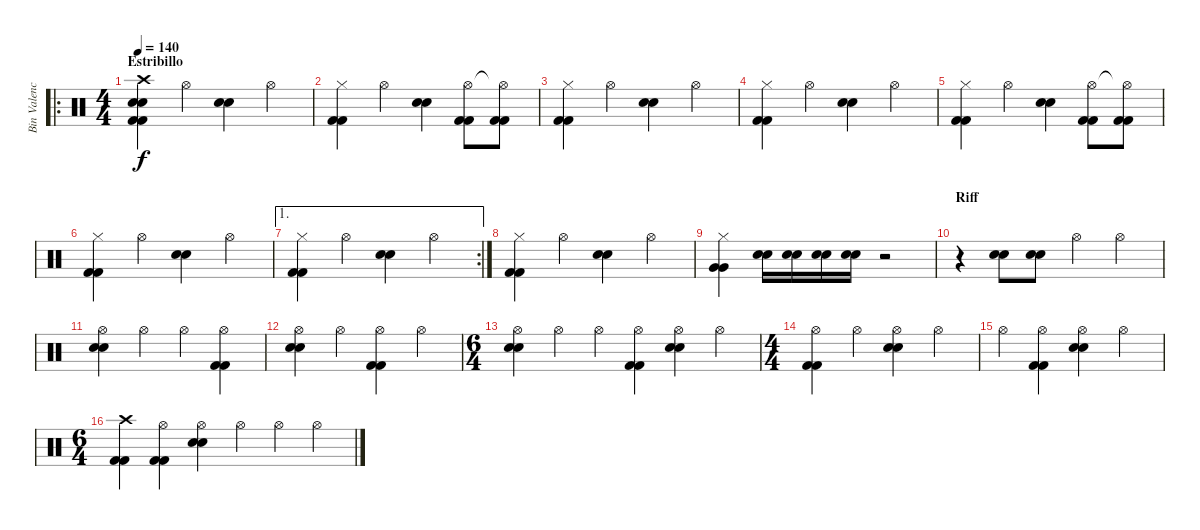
\track ("Bin Valencia (Bateria)" "Bin Valenc") {instrument percussion}
\staff {score}
\articulation defaults
\ro
\ts (4 4)
\section ("" "Estribillo")
\tempo 140
\clef neutral
\ks c
("Crash high (hit)" "Snare (hit) 2" "Snare (hit) 2" "Kick (hit) 2" "Kick (hit) 2").4{dy f} "Hi-Hat (open)".4 ("Snare (hit) 2" "Snare (hit) 2").4 "Hi-Hat (open)".4 |
("Hi-Hat (closed)" "Kick (hit) 2" "Kick (hit) 2").4 "Hi-Hat (open)".4 ("Snare (hit) 2" "Snare (hit) 2").4 ("Hi-Hat (open)" "Kick (hit) 2" "Kick (hit) 2").8 ("Hi-Hat (open)"{t} "Kick (hit) 2" "Kick (hit) 2").8 |
("Hi-Hat (closed)" "Kick (hit) 2" "Kick (hit) 2").4 "Hi-Hat (open)".4 ("Snare (hit) 2" "Snare (hit) 2").4 "Hi-Hat (open)".4 |
("Hi-Hat (closed)" "Kick (hit) 2" "Kick (hit) 2").4 "Hi-Hat (open)".4 ("Snare (hit) 2" "Snare (hit) 2").4 "Hi-Hat (open)".4 |
("Hi-Hat (closed)" "Kick (hit) 2" "Kick (hit) 2").4 "Hi-Hat (open)".4 ("Snare (hit) 2" "Snare (hit) 2").4 ("Hi-Hat (open)" "Kick (hit) 2" "Kick (hit) 2").8 ("Hi-Hat (open)"{t} "Kick (hit) 2" "Kick (hit) 2").8 |
("Hi-Hat (closed)" "Kick (hit) 2" "Kick (hit) 2").4 "Hi-Hat (open)".4 ("Snare (hit) 2" "Snare (hit) 2").4 "Hi-Hat (open)".4 |
\ae 1
\rc 2
("Hi-Hat (closed)" "Kick (hit) 2" "Kick (hit) 2").4 "Hi-Hat (open)".4 ("Snare (hit) 2" "Snare (hit) 2").4 "Hi-Hat (open)".4 |
("Hi-Hat (closed)" "Kick (hit) 2" "Kick (hit) 2").4 "Hi-Hat (open)".4 ("Snare (hit) 2" "Snare (hit) 2").4 "Hi-Hat (open)".4 |
("Hi-Hat (closed)" "Very Low Tom (hit)" "Very Low Tom (hit)").4 ("Snare (hit) 2" "Snare (hit) 2").16 ("Snare (hit) 2" "Snare (hit) 2").16 ("Snare (hit) 2" "Snare (hit) 2").16 ("Snare (hit) 2" "Snare (hit) 2").16 r.2 |
\section ("" "Riff")
r.4 ("Snare (hit) 2" "Snare (hit) 2").8 ("Snare (hit) 2" "Snare (hit) 2").8 "Hi-Hat (open)".4 "Hi-Hat (open)".4 |
("Hi-Hat (open)" "Snare (hit) 2" "Snare (hit) 2").4 "Hi-Hat (open)".4 "Hi-Hat (open)".4 ("Hi-Hat (open)" "Kick (hit) 2" "Kick (hit) 2").4 |
("Hi-Hat (open)" "Snare (hit) 2" "Snare (hit) 2").4 "Hi-Hat (open)".4 ("Hi-Hat (open)" "Kick (hit) 2" "Kick (hit) 2").4 "Hi-Hat (open)".4 |
\ts (6 4)
("Hi-Hat (open)" "Snare (hit) 2" "Snare (hit) 2").4 "Hi-Hat (open)".4 "Hi-Hat (open)".4 ("Hi-Hat (open)" "Kick (hit) 2" "Kick (hit) 2").4 ("Hi-Hat (open)" "Snare (hit) 2" "Snare (hit) 2").4 "Hi-Hat (open)".4 |
\ts (4 4)
("Hi-Hat (open)" "Kick (hit) 2" "Kick (hit) 2").4 "Hi-Hat (open)".4 ("Hi-Hat (open)" "Snare (hit) 2" "Snare (hit) 2").4 "Hi-Hat (open)".4 |
"Hi-Hat (open)".4 ("Hi-Hat (open)" "Kick (hit) 2" "Kick (hit) 2").4 ("Hi-Hat (open)" "Snare (hit) 2" "Snare (hit) 2").4 "Hi-Hat (open)".4 |
\ts (6 4)
("Crash high (hit)" "Kick (hit) 2" "Kick (hit) 2").4 ("Hi-Hat (open)" "Kick (hit) 2" "Kick (hit) 2").4 ("Hi-Hat (open)" "Snare (hit) 2" "Snare (hit) 2").4 "Hi-Hat (open)".4 "Hi-Hat (open)".4 "Hi-Hat (open)".4
